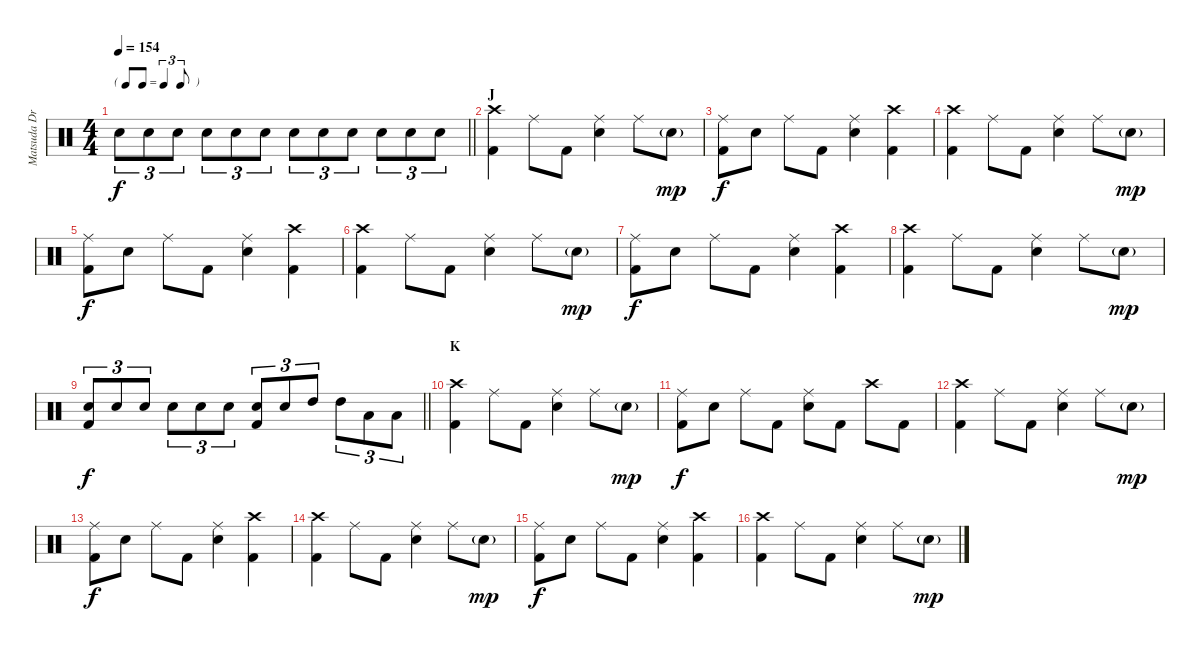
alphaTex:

\track ("Matsuda Drums" "Matsuda Dr") {instrument percussion}
\staff {score}
\articulation defaults
\ts (4 4)
\tf triplet8th
\tempo 154
\clef neutral
\barLineRight lightlight
\ks c "Snare (hit) 2".8{tu (3 2) dy f} "Snare (hit) 2".8{tu (3 2)} "Snare (hit) 2".8{tu (3 2)} "Snare (hit) 2".8{tu (3 2)} "Snare (hit) 2".8{tu (3 2)} "Snare (hit) 2".8{tu (3 2)} "Snare (hit) 2".8{tu (3 2)} "Snare (hit) 2".8{tu (3 2)} "Snare (hit) 2".8{tu (3 2)} "Snare (hit) 2".8{tu (3 2)} "Snare (hit) 2".8{tu (3 2)} "Snare (hit) 2".8{tu (3 2)}
|
\section ("" "J")
("Crash high (hit)" "Kick (hit) 2").4 "Ride (middle)".8 "Kick (hit) 2".8 ("Ride (middle)" "Snare (hit) 2").4 "Ride (middle)".8 "Snare (hit) 2"{g}.8{dy mp} |
("Ride (middle)" "Kick (hit) 2").8{dy f} "Snare (hit) 2".8 "Ride (middle)".8 "Kick (hit) 2".8 ("Ride (middle)" "Snare (hit) 2").4 ("Crash high (hit)" "Kick (hit) 2").4 |
("Crash high (hit)" "Kick (hit) 2").4 "Ride (middle)".8 "Kick (hit) 2".8 ("Ride (middle)" "Snare (hit) 2").4 "Ride (middle)".8 "Snare (hit) 2"{g}.8{dy mp} |
("Ride (middle)" "Kick (hit) 2").8{dy f} "Snare (hit) 2".8 "Ride (middle)".8 "Kick (hit) 2".8 ("Ride (middle)" "Snare (hit) 2").4 ("Crash high (hit)" "Kick (hit) 2").4 |
("Crash high (hit)" "Kick (hit) 2").4 "Ride (middle)".8 "Kick (hit) 2".8 ("Ride (middle)" "Snare (hit) 2").4 "Ride (middle)".8 "Snare (hit) 2"{g}.8{dy mp} |
("Ride (middle)" "Kick (hit) 2").8{dy f} "Snare (hit) 2".8 "Ride (middle)".8 "Kick (hit) 2".8 ("Ride (middle)" "Snare (hit) 2").4 ("Crash high (hit)" "Kick (hit) 2").4 |
("Crash high (hit)" "Kick (hit) 2").4 "Ride (middle)".8 "Kick (hit) 2".8 ("Ride (middle)" "Snare (hit) 2").4 "Ride (middle)".8 "Snare (hit) 2"{g}.8{dy mp} |
\barLineRight lightlight
("Snare (hit) 2" "Kick (hit) 2").8{tu (3 2) dy f} "Snare (hit) 2".8{tu (3 2)} "Snare (hit) 2".8{tu (3 2)} "Snare (hit) 2".8{tu (3 2)} "Snare (hit) 2".8{tu (3 2)} "Snare (hit) 2".8{tu (3 2)} ("Snare (hit) 2" "Kick (hit) 2").8{tu (3 2)} "Snare (hit) 2".8{tu (3 2)} "High Tom (hit)".8{tu (3 2)} "High Tom (hit)".8{tu (3 2)} "Low Floor Tom (hit)".8{tu (3 2)} "Low Floor Tom (hit)".8{tu (3 2)} |
\section ("" "K")
("Crash high (hit)" "Kick (hit) 2").4 "Ride (middle)".8 "Kick (hit) 2".8 ("Ride (middle)" "Snare (hit) 2").4 "Ride (middle)".8 "Snare (hit) 2"{g}.8{dy mp} |
("Ride (middle)" "Kick (hit) 2").8{dy f} "Snare (hit) 2".8 "Ride (middle)".8 "Kick (hit) 2".8 ("Ride (middle)" "Snare (hit) 2").8 "Kick (hit) 2".8 "Crash high (hit)".8 "Kick (hit) 2".8 |
("Crash high (hit)" "Kick (hit) 2").4 "Ride (middle)".8 "Kick (hit) 2".8 ("Ride (middle)" "Snare (hit) 2").4 "Ride (middle)".8 "Snare (hit) 2"{g}.8{dy mp} |
("Ride (middle)" "Kick (hit) 2").8{dy f} "Snare (hit) 2".8 "Ride (middle)".8 "Kick (hit) 2".8 ("Ride (middle)" "Snare (hit) 2").4 ("Crash high (hit)" "Kick (hit) 2").4 |
("Crash high (hit)" "Kick (hit) 2").4 "Ride (middle)".8 "Kick (hit) 2".8 ("Ride (middle)" "Snare (hit) 2").4 "Ride (middle)".8 "Snare (hit) 2"{g}.8{dy mp} |
("Ride (middle)" "Kick (hit) 2").8{dy f} "Snare (hit) 2".8 "Ride (middle)".8 "Kick (hit) 2".8 ("Ride (middle)" "Snare (hit) 2").4 ("Crash high (hit)" "Kick (hit) 2").4 |
("Crash high (hit)" "Kick (hit) 2").4 "Ride (middle)".8 "Kick (hit) 2".8 ("Ride (middle)" "Snare (hit) 2").4 "Ride (middle)".8 "Snare (hit) 2"{g}.8{dy mp}
